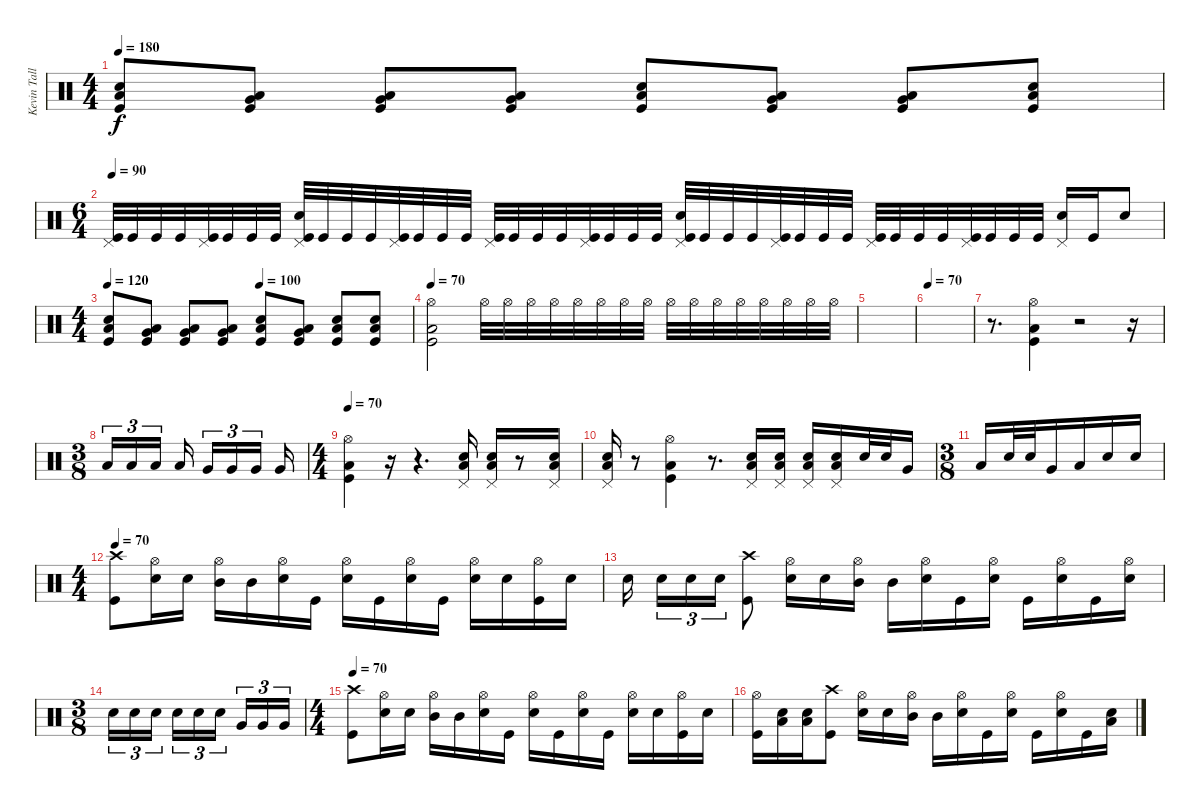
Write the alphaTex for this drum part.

\track ("Kevin Talley" "Kevin Tall") {instrument percussion}
\staff
\articulation defaults
\ts (4 4)
\tempo 180
\clef neutral
\ks c
("Snare (hit) 2" "Low Floor Tom (hit)" "Kick (hit)").8{dy f} ("Very Low Tom (hit)" "Low Floor Tom (hit)" "Kick (hit)").8 ("Very Low Tom (hit)" "Low Floor Tom (hit)" "Kick (hit)").8 ("Very Low Tom (hit)" "Low Floor Tom (hit)" "Kick (hit)").8 ("Snare (hit) 2" "Low Floor Tom (hit)" "Kick (hit)").8 ("Very Low Tom (hit)" "Low Floor Tom (hit)" "Kick (hit)").8 ("Very Low Tom (hit)" "Low Floor Tom (hit)" "Kick (hit)").8 ("Snare (hit) 2" "Low Floor Tom (hit)" "Kick (hit)").8 |
\ts (6 4)
\tempo 90
("Pedal Hi-Hat (hit)" "Kick (hit)").32 "Kick (hit)".32 "Kick (hit)".32 "Kick (hit)".32 ("Pedal Hi-Hat (hit)" "Kick (hit)").32 "Kick (hit)".32 "Kick (hit)".32 "Kick (hit)".32 ("Pedal Hi-Hat (hit)" "Snare (hit) 2" "Kick (hit)").32 "Kick (hit)".32 "Kick (hit)".32 "Kick (hit)".32 ("Pedal Hi-Hat (hit)" "Kick (hit)").32 "Kick (hit)".32 "Kick (hit)".32 "Kick (hit)".32 ("Pedal Hi-Hat (hit)" "Kick (hit)").32 "Kick (hit)".32 "Kick (hit)".32 "Kick (hit)".32 ("Pedal Hi-Hat (hit)" "Kick (hit)").32 "Kick (hit)".32 "Kick (hit)".32 "Kick (hit)".32 ("Pedal Hi-Hat (hit)" "Snare (hit) 2" "Kick (hit)").32 "Kick (hit)".32 "Kick (hit)".32 "Kick (hit)".32 ("Pedal Hi-Hat (hit)" "Kick (hit)").32 "Kick (hit)".32 "Kick (hit)".32 "Kick (hit)".32 ("Pedal Hi-Hat (hit)" "Kick (hit)").32 "Kick (hit)".32 "Kick (hit)".32 "Kick (hit)".32 ("Pedal Hi-Hat (hit)" "Kick (hit)").32 "Kick (hit)".32 "Kick (hit)".32 "Kick (hit)".32 ("Pedal Hi-Hat (hit)" "Snare (hit) 2").16 "Kick (hit)".16 "Snare (hit) 2".8 |
\ts (4 4)
\tempo 120
\tempo (100 0.5)
("Snare (hit) 2" "Low Floor Tom (hit)" "Kick (hit)").8 ("Very Low Tom (hit)" "Low Floor Tom (hit)" "Kick (hit)").8 ("Very Low Tom (hit)" "Low Floor Tom (hit)" "Kick (hit)").8 ("Very Low Tom (hit)" "Low Floor Tom (hit)" "Kick (hit)").8 ("Snare (hit) 2" "Low Floor Tom (hit)" "Kick (hit)").8 ("Very Low Tom (hit)" "Low Floor Tom (hit)" "Kick (hit)").8 ("Snare (hit) 2" "Low Floor Tom (hit)" "Kick (hit)").8 ("Snare (hit) 2" "Low Floor Tom (hit)" "Kick (hit)").8 |
\tempo 70
("Hi-Hat (open)" "Low Floor Tom (hit)" "Kick (hit)").2 "Hi-Hat (open)".32 "Hi-Hat (open)".32 "Hi-Hat (open)".32 "Hi-Hat (open)".32 "Hi-Hat (open)".32 "Hi-Hat (open)".32 "Hi-Hat (open)".32 "Hi-Hat (open)".32 "Hi-Hat (open)".32 "Hi-Hat (open)".32 "Hi-Hat (open)".32 "Hi-Hat (open)".32 "Hi-Hat (open)".32 "Hi-Hat (open)".32 "Hi-Hat (open)".32 "Hi-Hat (open)".32 |
|
\tempo 70
|
r.8{d} ("Hi-Hat (open)" "Low Floor Tom (hit)" "Kick (hit)").4 r.2 r.16 |
\ts (3 8)
"Low Tom (hit)".16{tu (3 2)} "Low Tom (hit)".16{tu (3 2)} "Low Tom (hit)".16{tu (3 2)} "Low Tom (hit)".16{beam splitsecondary} "Very Low Tom (hit)".16{tu (3 2)} "Very Low Tom (hit)".16{tu (3 2)} "Very Low Tom (hit)".16{tu (3 2)} "Very Low Tom (hit)".16 |
\ts (4 4)
\tempo 70
("Hi-Hat (open)" "Low Floor Tom (hit)" "Kick (hit)").4 r.16 r.4{d} ("Pedal Hi-Hat (hit)" "Snare (hit) 2" "Low Floor Tom (hit)").16 ("Pedal Hi-Hat (hit)" "Snare (hit) 2" "Low Floor Tom (hit)").16 r.8 ("Pedal Hi-Hat (hit)" "Snare (hit) 2" "Low Floor Tom (hit)").16 |
("Pedal Hi-Hat (hit)" "Snare (hit) 2" "Low Floor Tom (hit)").16 r.8 ("Hi-Hat (open)" "Low Floor Tom (hit)" "Kick (hit)").4 r.8{d} ("Pedal Hi-Hat (hit)" "Snare (hit) 2" "Low Floor Tom (hit)").16 ("Pedal Hi-Hat (hit)" "Snare (hit) 2" "Low Floor Tom (hit)").16 ("Pedal Hi-Hat (hit)" "Snare (hit) 2" "Low Floor Tom (hit)").16 ("Pedal Hi-Hat (hit)" "Snare (hit) 2" "Low Floor Tom (hit)").16 "Snare (hit) 2".32 "Snare (hit) 2".32 "Very Low Tom (hit)".16 |
\ts (3 8)
"Low Floor Tom (hit)".16 "Snare (hit) 2".32 "Snare (hit) 2".32 "Very Low Tom (hit)".16 "Low Floor Tom (hit)".16 "Snare (hit) 2".16 "Snare (hit) 2".16 |
\ts (4 4)
\tempo 70
("Crash high (hit)" "Kick (hit)").8 ("Hi-Hat (open)" "Snare (hit) 2").16 "Snare (hit) 2".16 ("Hi-Hat (open)" "Mid Tom (hit)").16 "Mid Tom (hit)".16 ("Hi-Hat (open)" "Snare (hit) 2").16 "Kick (hit)".16 ("Hi-Hat (open)" "Snare (hit) 2").16 "Kick (hit)".16 ("Hi-Hat (open)" "Snare (hit) 2").16 "Kick (hit)".16 ("Hi-Hat (open)" "Snare (hit) 2").16 "Snare (hit) 2".16 ("Hi-Hat (open)" "Kick (hit)").16 "Snare (hit) 2".16 |
"Snare (hit) 2".16{beam splitsecondary} "Snare (hit) 2".16{tu (3 2)} "Snare (hit) 2".16{tu (3 2)} "Snare (hit) 2".16{tu (3 2)} ("Crash high (hit)" "Kick (hit)").8 ("Hi-Hat (open)" "Snare (hit) 2").16 "Snare (hit) 2".16 ("Hi-Hat (open)" "Mid Tom (hit)").16 "Mid Tom (hit)".16 ("Hi-Hat (open)" "Snare (hit) 2").16 "Kick (hit)".16 ("Hi-Hat (open)" "Snare (hit) 2").16 "Kick (hit)".16 ("Hi-Hat (open)" "Snare (hit) 2").16 "Kick (hit)".16 ("Hi-Hat (open)" "Snare (hit) 2").16 |
\ts (3 8)
"Snare (hit) 2".16{tu (3 2)} "Snare (hit) 2".16{tu (3 2)} "Snare (hit) 2".16{tu (3 2)} "Snare (hit) 2".16{tu (3 2)} "Snare (hit) 2".16{tu (3 2)} "Snare (hit) 2".16{tu (3 2)} "Very Low Tom (hit)".16{tu (3 2)} "Very Low Tom (hit)".16{tu (3 2)} "Very Low Tom (hit)".16{tu (3 2)} |
\ts (4 4)
\tempo 70
("Crash high (hit)" "Kick (hit)").8 ("Hi-Hat (open)" "Snare (hit) 2").16 "Snare (hit) 2".16 ("Hi-Hat (open)" "Mid Tom (hit)").16 "Mid Tom (hit)".16 ("Hi-Hat (open)" "Snare (hit) 2").16 "Kick (hit)".16 ("Hi-Hat (open)" "Snare (hit) 2").16 "Kick (hit)".16 ("Hi-Hat (open)" "Snare (hit) 2").16 "Kick (hit)".16 ("Hi-Hat (open)" "Snare (hit) 2").16 "Snare (hit) 2".16 ("Hi-Hat (open)" "Kick (hit)").16 "Snare (hit) 2".16 |
("Hi-Hat (open)" "Kick (hit)").16 ("Low Tom (hit)" "Snare (hit) 2").16 ("Low Tom (hit)" "Snare (hit) 2").16 ("Crash high (hit)" "Kick (hit)").8 ("Hi-Hat (open)" "Snare (hit) 2").16 "Snare (hit) 2".16 ("Hi-Hat (open)" "Mid Tom (hit)").16 "Mid Tom (hit)".16 ("Hi-Hat (open)" "Snare (hit) 2").16 "Kick (hit)".16 ("Hi-Hat (open)" "Snare (hit) 2").16 "Kick (hit)".16 ("Hi-Hat (open)" "Snare (hit) 2").16 "Kick (hit)".16 ("Low Tom (hit)" "Snare (hit) 2").16
